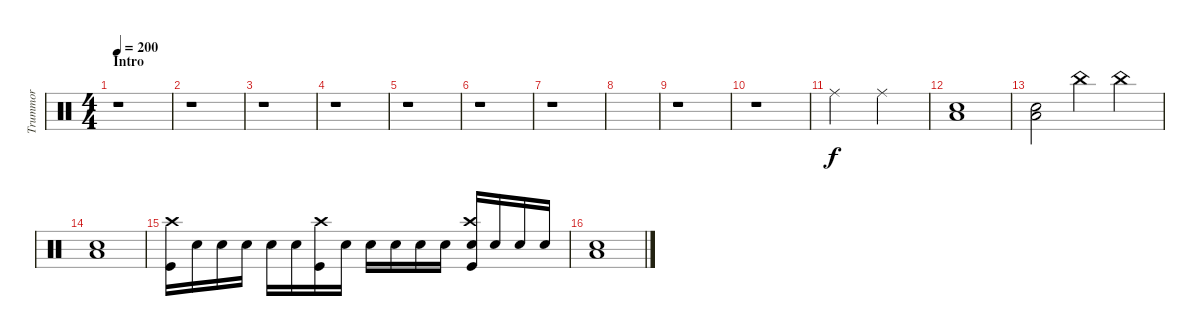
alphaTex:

\track ("Trummor" "Trummor") {instrument percussion}
\staff {score}
\articulation defaults
\ts (4 4)
\section ("" "Intro")
\tempo 200
\clef neutral
\ks c
r.1{dy f} |
r.1 |
r.1 |
r.1 |
r.1 |
r.1 |
r.1 |
|
r.1 |
r.1 |
"Ride (middle)".2 "Ride (middle)".2 |
("Electric Snare (hit)" "Low Floor Tom (hit)").1 |
("Electric Snare (hit)" "Low Floor Tom (hit)").2 "China (hit)".4 "China (hit)".4 |
("Electric Snare (hit)" "Low Floor Tom (hit)").1 |
("Crash high (hit)" "Kick (hit)").16 "Electric Snare (hit)".16 "Electric Snare (hit)".16 "Electric Snare (hit)".16 "Electric Snare (hit)".16 "Electric Snare (hit)".16 ("Crash high (hit)" "Kick (hit)").16 "Electric Snare (hit)".16 "Electric Snare (hit)".16 "Electric Snare (hit)".16 "Electric Snare (hit)".16 "Electric Snare (hit)".16 ("Crash high (hit)" "Electric Snare (hit)" "Kick (hit)").16 "Electric Snare (hit)".16 "Electric Snare (hit)".16 "Electric Snare (hit)".16 |
("Electric Snare (hit)" "Low Floor Tom (hit)").1
